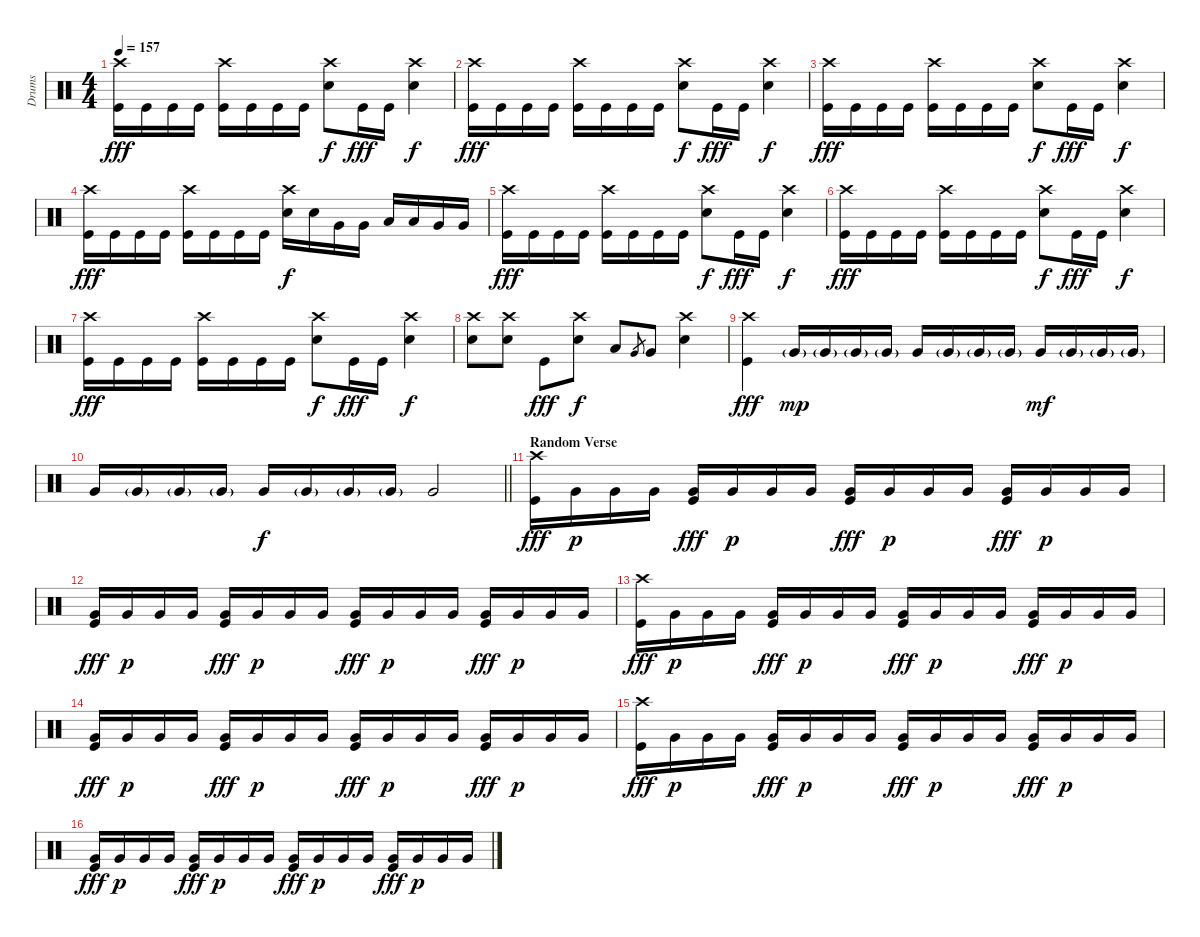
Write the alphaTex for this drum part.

\track ("Drums" "Drums") {instrument percussion}
\staff {score}
\articulation defaults
\ts (4 4)
\tempo 157
\clef neutral
\ks c
("Crash high (hit)" "Kick (hit)").16{dy fff} "Kick (hit)".16 "Kick (hit)".16 "Kick (hit)".16 ("Crash high (hit)" "Kick (hit)").16 "Kick (hit)".16 "Kick (hit)".16 "Kick (hit)".16 ("Crash high (hit)" "Snare (hit) 2").8{dy f} "Kick (hit)".16{dy fff} "Kick (hit)".16 ("Crash high (hit)" "Snare (hit) 2").4{dy f} |
("Crash high (hit)" "Kick (hit)").16{dy fff} "Kick (hit)".16 "Kick (hit)".16 "Kick (hit)".16 ("Crash high (hit)" "Kick (hit)").16 "Kick (hit)".16 "Kick (hit)".16 "Kick (hit)".16 ("Crash high (hit)" "Snare (hit) 2").8{dy f} "Kick (hit)".16{dy fff} "Kick (hit)".16 ("Crash high (hit)" "Snare (hit) 2").4{dy f} |
("Crash high (hit)" "Kick (hit)").16{dy fff} "Kick (hit)".16 "Kick (hit)".16 "Kick (hit)".16 ("Crash high (hit)" "Kick (hit)").16 "Kick (hit)".16 "Kick (hit)".16 "Kick (hit)".16 ("Crash high (hit)" "Snare (hit) 2").8{dy f} "Kick (hit)".16{dy fff} "Kick (hit)".16 ("Crash high (hit)" "Snare (hit) 2").4{dy f} |
("Crash high (hit)" "Kick (hit)").16{dy fff} "Kick (hit)".16 "Kick (hit)".16 "Kick (hit)".16 ("Crash high (hit)" "Kick (hit)").16 "Kick (hit)".16 "Kick (hit)".16 "Kick (hit)".16 ("Crash high (hit)" "Snare (hit) 2").16{dy f} "Snare (hit) 2".16 "Very Low Tom (hit)".16 "Very Low Tom (hit)".16 "Low Tom (hit)".16 "Low Tom (hit)".16 "Very Low Tom (hit)".16 "Very Low Tom (hit)".16 |
("Crash high (hit)" "Kick (hit)").16{dy fff} "Kick (hit)".16 "Kick (hit)".16 "Kick (hit)".16 ("Crash high (hit)" "Kick (hit)").16 "Kick (hit)".16 "Kick (hit)".16 "Kick (hit)".16 ("Crash high (hit)" "Snare (hit) 2").8{dy f} "Kick (hit)".16{dy fff} "Kick (hit)".16 ("Crash high (hit)" "Snare (hit) 2").4{dy f} |
("Crash high (hit)" "Kick (hit)").16{dy fff} "Kick (hit)".16 "Kick (hit)".16 "Kick (hit)".16 ("Crash high (hit)" "Kick (hit)").16 "Kick (hit)".16 "Kick (hit)".16 "Kick (hit)".16 ("Crash high (hit)" "Snare (hit) 2").8{dy f} "Kick (hit)".16{dy fff} "Kick (hit)".16 ("Crash high (hit)" "Snare (hit) 2").4{dy f} |
("Crash high (hit)" "Kick (hit)").16{dy fff} "Kick (hit)".16 "Kick (hit)".16 "Kick (hit)".16 ("Crash high (hit)" "Kick (hit)").16 "Kick (hit)".16 "Kick (hit)".16 "Kick (hit)".16 ("Crash high (hit)" "Snare (hit) 2").8{dy f} "Kick (hit)".16{dy fff} "Kick (hit)".16 ("Crash high (hit)" "Snare (hit) 2").4{dy f} |
("Crash high (hit)" "Snare (hit) 2").8 ("Crash high (hit)" "Snare (hit) 2").8 "Kick (hit)".8{dy fff} ("Crash high (hit)" "Snare (hit) 2").8{dy f} "Low Tom (hit)".8 "Very Low Tom (hit)".8{gr} "Very Low Tom (hit)".8 ("Crash high (hit)" "Snare (hit) 2").4 |
("Crash high (hit)" "Kick (hit)").4{dy fff} "Very Low Tom (hit)"{g}.16{dy mp} "Very Low Tom (hit)"{g}.16 "Very Low Tom (hit)"{g}.16 "Very Low Tom (hit)"{g}.16 "Very Low Tom (hit)".16 "Very Low Tom (hit)"{g}.16 "Very Low Tom (hit)"{g}.16 "Very Low Tom (hit)"{g}.16 "Very Low Tom (hit)".16{dy mf} "Very Low Tom (hit)"{g}.16 "Very Low Tom (hit)"{g}.16 "Very Low Tom (hit)"{g}.16 |
\barLineRight lightlight "Very Low Tom (hit)".16 "Very Low Tom (hit)"{g}.16 "Very Low Tom (hit)"{g}.16 "Very Low Tom (hit)"{g}.16 "Very Low Tom (hit)".16{dy f} "Very Low Tom (hit)"{g}.16 "Very Low Tom (hit)"{g}.16 "Very Low Tom (hit)"{g}.16 "Very Low Tom (hit)".2
|
\section ("" "Random Verse")
("Crash high (hit)" "Kick (hit)").16{dy fff} "Very Low Tom (hit)".16{dy p} "Very Low Tom (hit)".16 "Very Low Tom (hit)".16 ("Very Low Tom (hit)" "Kick (hit)").16{dy fff} "Very Low Tom (hit)".16{dy p} "Very Low Tom (hit)".16 "Very Low Tom (hit)".16 ("Very Low Tom (hit)" "Kick (hit)").16{dy fff} "Very Low Tom (hit)".16{dy p} "Very Low Tom (hit)".16 "Very Low Tom (hit)".16 ("Very Low Tom (hit)" "Kick (hit)").16{dy fff} "Very Low Tom (hit)".16{dy p} "Very Low Tom (hit)".16 "Very Low Tom (hit)".16 |
("Very Low Tom (hit)" "Kick (hit)").16{dy fff} "Very Low Tom (hit)".16{dy p} "Very Low Tom (hit)".16 "Very Low Tom (hit)".16 ("Very Low Tom (hit)" "Kick (hit)").16{dy fff} "Very Low Tom (hit)".16{dy p} "Very Low Tom (hit)".16 "Very Low Tom (hit)".16 ("Very Low Tom (hit)" "Kick (hit)").16{dy fff} "Very Low Tom (hit)".16{dy p} "Very Low Tom (hit)".16 "Very Low Tom (hit)".16 ("Very Low Tom (hit)" "Kick (hit)").16{dy fff} "Very Low Tom (hit)".16{dy p} "Very Low Tom (hit)".16 "Very Low Tom (hit)".16 |
("Crash high (hit)" "Kick (hit)").16{dy fff} "Very Low Tom (hit)".16{dy p} "Very Low Tom (hit)".16 "Very Low Tom (hit)".16 ("Very Low Tom (hit)" "Kick (hit)").16{dy fff} "Very Low Tom (hit)".16{dy p} "Very Low Tom (hit)".16 "Very Low Tom (hit)".16 ("Very Low Tom (hit)" "Kick (hit)").16{dy fff} "Very Low Tom (hit)".16{dy p} "Very Low Tom (hit)".16 "Very Low Tom (hit)".16 ("Very Low Tom (hit)" "Kick (hit)").16{dy fff} "Very Low Tom (hit)".16{dy p} "Very Low Tom (hit)".16 "Very Low Tom (hit)".16 |
("Very Low Tom (hit)" "Kick (hit)").16{dy fff} "Very Low Tom (hit)".16{dy p} "Very Low Tom (hit)".16 "Very Low Tom (hit)".16 ("Very Low Tom (hit)" "Kick (hit)").16{dy fff} "Very Low Tom (hit)".16{dy p} "Very Low Tom (hit)".16 "Very Low Tom (hit)".16 ("Very Low Tom (hit)" "Kick (hit)").16{dy fff} "Very Low Tom (hit)".16{dy p} "Very Low Tom (hit)".16 "Very Low Tom (hit)".16 ("Very Low Tom (hit)" "Kick (hit)").16{dy fff} "Very Low Tom (hit)".16{dy p} "Very Low Tom (hit)".16 "Very Low Tom (hit)".16 |
("Crash high (hit)" "Kick (hit)").16{dy fff} "Very Low Tom (hit)".16{dy p} "Very Low Tom (hit)".16 "Very Low Tom (hit)".16 ("Very Low Tom (hit)" "Kick (hit)").16{dy fff} "Very Low Tom (hit)".16{dy p} "Very Low Tom (hit)".16 "Very Low Tom (hit)".16 ("Very Low Tom (hit)" "Kick (hit)").16{dy fff} "Very Low Tom (hit)".16{dy p} "Very Low Tom (hit)".16 "Very Low Tom (hit)".16 ("Very Low Tom (hit)" "Kick (hit)").16{dy fff} "Very Low Tom (hit)".16{dy p} "Very Low Tom (hit)".16 "Very Low Tom (hit)".16 |
("Very Low Tom (hit)" "Kick (hit)").16{dy fff} "Very Low Tom (hit)".16{dy p} "Very Low Tom (hit)".16 "Very Low Tom (hit)".16 ("Very Low Tom (hit)" "Kick (hit)").16{dy fff} "Very Low Tom (hit)".16{dy p} "Very Low Tom (hit)".16 "Very Low Tom (hit)".16 ("Very Low Tom (hit)" "Kick (hit)").16{dy fff} "Very Low Tom (hit)".16{dy p} "Very Low Tom (hit)".16 "Very Low Tom (hit)".16 ("Very Low Tom (hit)" "Kick (hit)").16{dy fff} "Very Low Tom (hit)".16{dy p} "Very Low Tom (hit)".16 "Very Low Tom (hit)".16
